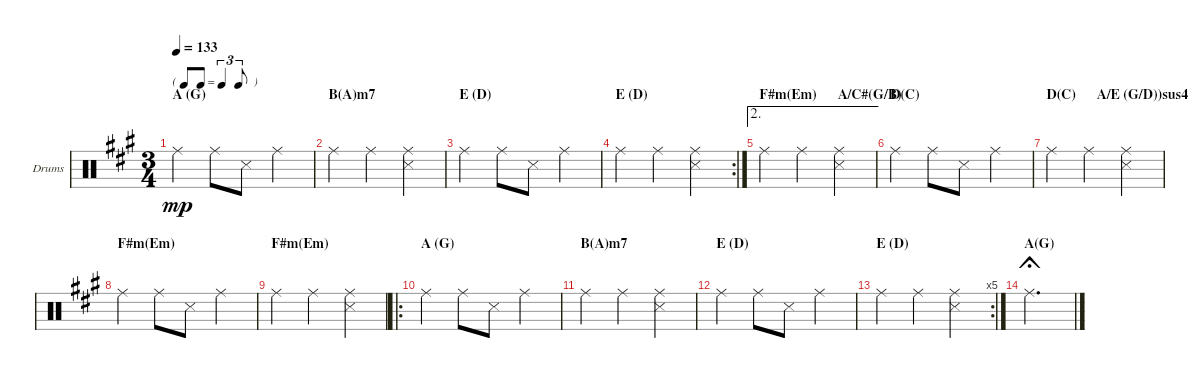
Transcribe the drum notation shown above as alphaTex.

\bracketExtendMode groupsimilarinstruments
\firstSystemTrackNameOrientation horizontal
\otherSystemsTrackNameOrientation horizontal
\track ("Drumkit" "Drums") {solo instrument percussion}
\staff {score}
\articulation defaults
\ts (3 4)
\tf triplet8th
\section ("" "A (G)")
\tempo 133
\clef neutral
\ks a "Ride (middle)".4{dy mp} "Ride (middle)".8 "Snare (side stick) 3".8 "Ride (middle)".4
|
\section ("" "B(A)m7")
"Ride (middle)".4 "Ride (middle)".4 ("Ride (middle)" "Snare (side stick) 3").4 |
\section ("" "E (D)")
"Ride (middle)".4 "Ride (middle)".8 "Snare (side stick) 3".8 "Ride (middle)".4 |
\rc 2
\section ("" "E (D)")
"Ride (middle)".4 "Ride (middle)".4 ("Ride (middle)" "Snare (side stick) 3").4 |
\ae 2
\section ("" "F#m(Em)      A/C#(G/B)")
"Ride (middle)".4 "Ride (middle)".4 ("Ride (middle)" "Snare (side stick) 3").4 |
\section ("" "D(C)")
"Ride (middle)".4 "Ride (middle)".8 "Snare (side stick) 3".8 "Ride (middle)".4 |
\section ("" "D(C)      A/E (G/D))sus4")
"Ride (middle)".4 "Ride (middle)".4 ("Ride (middle)" "Snare (side stick) 3").4 |
\section ("" "F#m(Em)")
"Ride (middle)".4 "Ride (middle)".8 "Snare (side stick) 3".8 "Ride (middle)".4 |
\section ("" "F#m(Em)")
"Ride (middle)".4 "Ride (middle)".4 ("Ride (middle)" "Snare (side stick) 3").4 |
\ro
\section ("" "A (G)")
"Ride (middle)".4 "Ride (middle)".8 "Snare (side stick) 3".8 "Ride (middle)".4 |
\section ("" "B(A)m7")
"Ride (middle)".4 "Ride (middle)".4 ("Ride (middle)" "Snare (side stick) 3").4 |
\section ("" "E (D)")
"Ride (middle)".4 "Ride (middle)".8 "Snare (side stick) 3".8 "Ride (middle)".4 |
\rc 5
\section ("" "E (D)")
"Ride (middle)".4 "Ride (middle)".4 ("Ride (middle)" "Snare (side stick) 3").4 |
\section ("" "A(G)")
"Ride (middle)".2{d fermata (short 0.5)}
